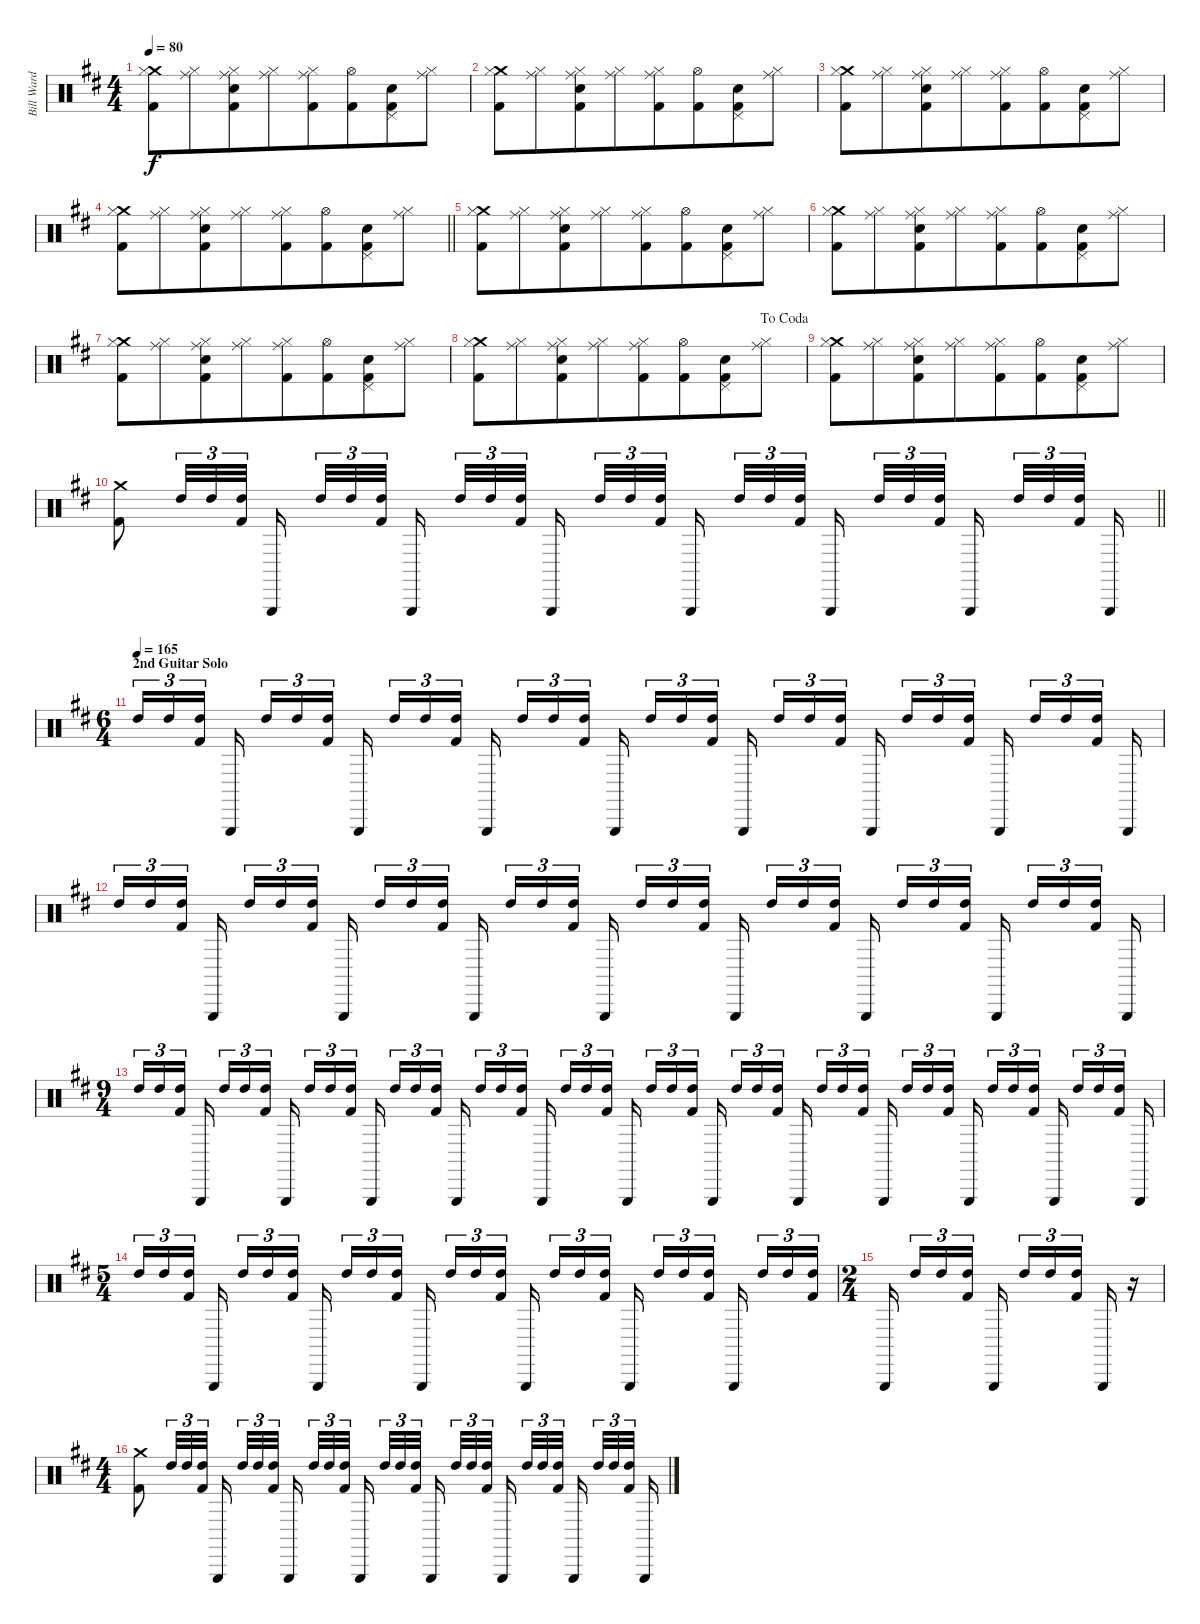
\track ("Bill Ward" "Bill Ward") {instrument percussion}
\staff {score}
\articulation defaults
\ts (4 4)
\tempo 80
\clef neutral
\ks d
("Crash medium (hit)" "Hi-Hat (closed)" "Kick (hit) 2").8{dy f} ("Ride (middle)" "Hi-Hat (closed)").8{beam merge} ("Ride (middle)" "Hi-Hat (closed)" "Snare (hit) 2" "Kick (hit) 2").8 ("Ride (middle)" "Hi-Hat (closed)").8{beam merge} ("Ride (middle)" "Hi-Hat (closed)" "Kick (hit) 2").8 ("Hi-Hat (open)" "Kick (hit) 2").8{beam merge} ("Pedal Hi-Hat (hit)" "Snare (hit) 2" "Kick (hit) 2").8 ("Ride (middle)" "Hi-Hat (closed)").8 |
("Crash medium (hit)" "Hi-Hat (closed)" "Kick (hit) 2").8 ("Ride (middle)" "Hi-Hat (closed)").8{beam merge} ("Ride (middle)" "Hi-Hat (closed)" "Snare (hit) 2" "Kick (hit) 2").8 ("Ride (middle)" "Hi-Hat (closed)").8{beam merge} ("Ride (middle)" "Hi-Hat (closed)" "Kick (hit) 2").8 ("Hi-Hat (open)" "Kick (hit) 2").8{beam merge} ("Pedal Hi-Hat (hit)" "Snare (hit) 2" "Kick (hit) 2").8 ("Ride (middle)" "Hi-Hat (closed)").8 |
("Crash medium (hit)" "Hi-Hat (closed)" "Kick (hit) 2").8 ("Ride (middle)" "Hi-Hat (closed)").8{beam merge} ("Ride (middle)" "Hi-Hat (closed)" "Snare (hit) 2" "Kick (hit) 2").8 ("Ride (middle)" "Hi-Hat (closed)").8{beam merge} ("Ride (middle)" "Hi-Hat (closed)" "Kick (hit) 2").8 ("Hi-Hat (open)" "Kick (hit) 2").8{beam merge} ("Pedal Hi-Hat (hit)" "Snare (hit) 2" "Kick (hit) 2").8 ("Ride (middle)" "Hi-Hat (closed)").8 |
\barLineRight lightlight
("Crash medium (hit)" "Hi-Hat (closed)" "Kick (hit) 2").8 ("Ride (middle)" "Hi-Hat (closed)").8{beam merge} ("Ride (middle)" "Hi-Hat (closed)" "Snare (hit) 2" "Kick (hit) 2").8 ("Ride (middle)" "Hi-Hat (closed)").8{beam merge} ("Ride (middle)" "Hi-Hat (closed)" "Kick (hit) 2").8 ("Hi-Hat (open)" "Kick (hit) 2").8{beam merge} ("Pedal Hi-Hat (hit)" "Snare (hit) 2" "Kick (hit) 2").8 ("Ride (middle)" "Hi-Hat (closed)").8 |
("Crash medium (hit)" "Hi-Hat (closed)" "Kick (hit) 2").8 ("Ride (middle)" "Hi-Hat (closed)").8{beam merge} ("Ride (middle)" "Hi-Hat (closed)" "Snare (hit) 2" "Kick (hit) 2").8 ("Ride (middle)" "Hi-Hat (closed)").8{beam merge} ("Ride (middle)" "Hi-Hat (closed)" "Kick (hit) 2").8 ("Hi-Hat (open)" "Kick (hit) 2").8{beam merge} ("Pedal Hi-Hat (hit)" "Snare (hit) 2" "Kick (hit) 2").8 ("Ride (middle)" "Hi-Hat (closed)").8 |
("Crash medium (hit)" "Hi-Hat (closed)" "Kick (hit) 2").8 ("Ride (middle)" "Hi-Hat (closed)").8{beam merge} ("Ride (middle)" "Hi-Hat (closed)" "Snare (hit) 2" "Kick (hit) 2").8 ("Ride (middle)" "Hi-Hat (closed)").8{beam merge} ("Ride (middle)" "Hi-Hat (closed)" "Kick (hit) 2").8 ("Hi-Hat (open)" "Kick (hit) 2").8{beam merge} ("Pedal Hi-Hat (hit)" "Snare (hit) 2" "Kick (hit) 2").8 ("Ride (middle)" "Hi-Hat (closed)").8 |
("Crash medium (hit)" "Hi-Hat (closed)" "Kick (hit) 2").8 ("Ride (middle)" "Hi-Hat (closed)").8{beam merge} ("Ride (middle)" "Hi-Hat (closed)" "Snare (hit) 2" "Kick (hit) 2").8 ("Ride (middle)" "Hi-Hat (closed)").8{beam merge} ("Ride (middle)" "Hi-Hat (closed)" "Kick (hit) 2").8 ("Hi-Hat (open)" "Kick (hit) 2").8{beam merge} ("Pedal Hi-Hat (hit)" "Snare (hit) 2" "Kick (hit) 2").8 ("Ride (middle)" "Hi-Hat (closed)").8 |
\jump dacoda
("Crash medium (hit)" "Hi-Hat (closed)" "Kick (hit) 2").8 ("Ride (middle)" "Hi-Hat (closed)").8{beam merge} ("Ride (middle)" "Hi-Hat (closed)" "Snare (hit) 2" "Kick (hit) 2").8 ("Ride (middle)" "Hi-Hat (closed)").8{beam merge} ("Ride (middle)" "Hi-Hat (closed)" "Kick (hit) 2").8 ("Hi-Hat (open)" "Kick (hit) 2").8{beam merge} ("Pedal Hi-Hat (hit)" "Snare (hit) 2" "Kick (hit) 2").8 ("Ride (middle)" "Hi-Hat (closed)").8 |
("Crash medium (hit)" "Hi-Hat (closed)" "Kick (hit) 2").8 ("Ride (middle)" "Hi-Hat (closed)").8{beam merge} ("Ride (middle)" "Hi-Hat (closed)" "Snare (hit) 2" "Kick (hit) 2").8 ("Ride (middle)" "Hi-Hat (closed)").8{beam merge} ("Ride (middle)" "Hi-Hat (closed)" "Kick (hit) 2").8 ("Hi-Hat (open)" "Kick (hit) 2").8{beam merge} ("Pedal Hi-Hat (hit)" "Snare (hit) 2" "Kick (hit) 2").8 ("Ride (middle)" "Hi-Hat (closed)").8 |
\barLineRight lightlight
("Crash medium (hit)" "Kick (hit) 2").8 "High Tom (hit)".32{tu (3 2)} "High Tom (hit)".32{tu (3 2)} ("High Tom (hit)" "Kick (hit) 2").32{tu (3 2) beam splitsecondary} "Triangle (hit)".16 "High Tom (hit)".32{tu (3 2)} "High Tom (hit)".32{tu (3 2)} ("High Tom (hit)" "Kick (hit) 2").32{tu (3 2) beam splitsecondary} "Triangle (hit)".16{beam splitsecondary} "High Tom (hit)".32{tu (3 2)} "High Tom (hit)".32{tu (3 2)} ("High Tom (hit)" "Kick (hit) 2").32{tu (3 2) beam splitsecondary} "Triangle (hit)".16 "High Tom (hit)".32{tu (3 2)} "High Tom (hit)".32{tu (3 2)} ("High Tom (hit)" "Kick (hit) 2").32{tu (3 2) beam splitsecondary} "Triangle (hit)".16{beam splitsecondary} "High Tom (hit)".32{tu (3 2)} "High Tom (hit)".32{tu (3 2)} ("High Tom (hit)" "Kick (hit) 2").32{tu (3 2) beam splitsecondary} "Triangle (hit)".16 "High Tom (hit)".32{tu (3 2)} "High Tom (hit)".32{tu (3 2)} ("High Tom (hit)" "Kick (hit) 2").32{tu (3 2) beam splitsecondary} "Triangle (hit)".16{beam splitsecondary} "High Tom (hit)".32{tu (3 2)} "High Tom (hit)".32{tu (3 2)} ("High Tom (hit)" "Kick (hit) 2").32{tu (3 2) beam splitsecondary} "Triangle (hit)".16 |
\ts (6 4)
\section ("" "2nd Guitar Solo")
\tempo (165)
"High Tom (hit)".16{tu (3 2)} "High Tom (hit)".16{tu (3 2)} ("High Tom (hit)" "Kick (hit) 2").16{tu (3 2) beam splitsecondary} "Triangle (hit)".16{beam splitsecondary} "High Tom (hit)".16{tu (3 2)} "High Tom (hit)".16{tu (3 2)} ("High Tom (hit)" "Kick (hit) 2").16{tu (3 2) beam splitsecondary} "Triangle (hit)".16{beam splitsecondary} "High Tom (hit)".16{tu (3 2)} "High Tom (hit)".16{tu (3 2)} ("High Tom (hit)" "Kick (hit) 2").16{tu (3 2) beam splitsecondary} "Triangle (hit)".16{beam splitsecondary} "High Tom (hit)".16{tu (3 2)} "High Tom (hit)".16{tu (3 2)} ("High Tom (hit)" "Kick (hit) 2").16{tu (3 2) beam splitsecondary} "Triangle (hit)".16 "High Tom (hit)".16{tu (3 2)} "High Tom (hit)".16{tu (3 2)} ("High Tom (hit)" "Kick (hit) 2").16{tu (3 2) beam splitsecondary} "Triangle (hit)".16{beam splitsecondary} "High Tom (hit)".16{tu (3 2)} "High Tom (hit)".16{tu (3 2)} ("High Tom (hit)" "Kick (hit) 2").16{tu (3 2) beam splitsecondary} "Triangle (hit)".16{beam splitsecondary} "High Tom (hit)".16{tu (3 2)} "High Tom (hit)".16{tu (3 2)} ("High Tom (hit)" "Kick (hit) 2").16{tu (3 2) beam splitsecondary} "Triangle (hit)".16{beam splitsecondary} "High Tom (hit)".16{tu (3 2)} "High Tom (hit)".16{tu (3 2)} ("High Tom (hit)" "Kick (hit) 2").16{tu (3 2) beam splitsecondary} "Triangle (hit)".16 |
"High Tom (hit)".16{tu (3 2)} "High Tom (hit)".16{tu (3 2)} ("High Tom (hit)" "Kick (hit) 2").16{tu (3 2) beam splitsecondary} "Triangle (hit)".16{beam splitsecondary} "High Tom (hit)".16{tu (3 2)} "High Tom (hit)".16{tu (3 2)} ("High Tom (hit)" "Kick (hit) 2").16{tu (3 2) beam splitsecondary} "Triangle (hit)".16{beam splitsecondary} "High Tom (hit)".16{tu (3 2)} "High Tom (hit)".16{tu (3 2)} ("High Tom (hit)" "Kick (hit) 2").16{tu (3 2) beam splitsecondary} "Triangle (hit)".16{beam splitsecondary} "High Tom (hit)".16{tu (3 2)} "High Tom (hit)".16{tu (3 2)} ("High Tom (hit)" "Kick (hit) 2").16{tu (3 2) beam splitsecondary} "Triangle (hit)".16 "High Tom (hit)".16{tu (3 2)} "High Tom (hit)".16{tu (3 2)} ("High Tom (hit)" "Kick (hit) 2").16{tu (3 2) beam splitsecondary} "Triangle (hit)".16{beam splitsecondary} "High Tom (hit)".16{tu (3 2)} "High Tom (hit)".16{tu (3 2)} ("High Tom (hit)" "Kick (hit) 2").16{tu (3 2) beam splitsecondary} "Triangle (hit)".16{beam splitsecondary} "High Tom (hit)".16{tu (3 2)} "High Tom (hit)".16{tu (3 2)} ("High Tom (hit)" "Kick (hit) 2").16{tu (3 2) beam splitsecondary} "Triangle (hit)".16{beam splitsecondary} "High Tom (hit)".16{tu (3 2)} "High Tom (hit)".16{tu (3 2)} ("High Tom (hit)" "Kick (hit) 2").16{tu (3 2) beam splitsecondary} "Triangle (hit)".16 |
\ts (9 4)
"High Tom (hit)".16{tu (3 2)} "High Tom (hit)".16{tu (3 2)} ("High Tom (hit)" "Kick (hit) 2").16{tu (3 2) beam splitsecondary} "Triangle (hit)".16{beam splitsecondary} "High Tom (hit)".16{tu (3 2)} "High Tom (hit)".16{tu (3 2)} ("High Tom (hit)" "Kick (hit) 2").16{tu (3 2) beam splitsecondary} "Triangle (hit)".16{beam splitsecondary} "High Tom (hit)".16{tu (3 2)} "High Tom (hit)".16{tu (3 2)} ("High Tom (hit)" "Kick (hit) 2").16{tu (3 2) beam splitsecondary} "Triangle (hit)".16{beam splitsecondary} "High Tom (hit)".16{tu (3 2)} "High Tom (hit)".16{tu (3 2)} ("High Tom (hit)" "Kick (hit) 2").16{tu (3 2) beam splitsecondary} "Triangle (hit)".16 "High Tom (hit)".16{tu (3 2)} "High Tom (hit)".16{tu (3 2)} ("High Tom (hit)" "Kick (hit) 2").16{tu (3 2) beam splitsecondary} "Triangle (hit)".16{beam splitsecondary} "High Tom (hit)".16{tu (3 2)} "High Tom (hit)".16{tu (3 2)} ("High Tom (hit)" "Kick (hit) 2").16{tu (3 2) beam splitsecondary} "Triangle (hit)".16{beam splitsecondary} "High Tom (hit)".16{tu (3 2)} "High Tom (hit)".16{tu (3 2)} ("High Tom (hit)" "Kick (hit) 2").16{tu (3 2) beam splitsecondary} "Triangle (hit)".16{beam splitsecondary} "High Tom (hit)".16{tu (3 2)} "High Tom (hit)".16{tu (3 2)} ("High Tom (hit)" "Kick (hit) 2").16{tu (3 2) beam splitsecondary} "Triangle (hit)".16 "High Tom (hit)".16{tu (3 2)} "High Tom (hit)".16{tu (3 2)} ("High Tom (hit)" "Kick (hit) 2").16{tu (3 2) beam splitsecondary} "Triangle (hit)".16{beam splitsecondary} "High Tom (hit)".16{tu (3 2)} "High Tom (hit)".16{tu (3 2)} ("High Tom (hit)" "Kick (hit) 2").16{tu (3 2) beam splitsecondary} "Triangle (hit)".16{beam splitsecondary} "High Tom (hit)".16{tu (3 2)} "High Tom (hit)".16{tu (3 2)} ("High Tom (hit)" "Kick (hit) 2").16{tu (3 2) beam splitsecondary} "Triangle (hit)".16{beam splitsecondary} "High Tom (hit)".16{tu (3 2)} "High Tom (hit)".16{tu (3 2)} ("High Tom (hit)" "Kick (hit) 2").16{tu (3 2) beam splitsecondary} "Triangle (hit)".16 |
\ts (5 4)
"High Tom (hit)".16{tu (3 2)} "High Tom (hit)".16{tu (3 2)} ("High Tom (hit)" "Kick (hit) 2").16{tu (3 2) beam splitsecondary} "Triangle (hit)".16{beam splitsecondary} "High Tom (hit)".16{tu (3 2)} "High Tom (hit)".16{tu (3 2)} ("High Tom (hit)" "Kick (hit) 2").16{tu (3 2) beam splitsecondary} "Triangle (hit)".16{beam splitsecondary} "High Tom (hit)".16{tu (3 2)} "High Tom (hit)".16{tu (3 2)} ("High Tom (hit)" "Kick (hit) 2").16{tu (3 2)} "Triangle (hit)".16{beam splitsecondary} "High Tom (hit)".16{tu (3 2)} "High Tom (hit)".16{tu (3 2)} ("High Tom (hit)" "Kick (hit) 2").16{tu (3 2) beam splitsecondary} "Triangle (hit)".16 "High Tom (hit)".16{tu (3 2)} "High Tom (hit)".16{tu (3 2)} ("High Tom (hit)" "Kick (hit) 2").16{tu (3 2) beam splitsecondary} "Triangle (hit)".16{beam splitsecondary} "High Tom (hit)".16{tu (3 2)} "High Tom (hit)".16{tu (3 2)} ("High Tom (hit)" "Kick (hit) 2").16{tu (3 2) beam splitsecondary} "Triangle (hit)".16{beam splitsecondary} "High Tom (hit)".16{tu (3 2)} "High Tom (hit)".16{tu (3 2)} ("High Tom (hit)" "Kick (hit) 2").16{tu (3 2)} |
\ts (2 4)
"Triangle (hit)".16{beam splitsecondary} "High Tom (hit)".16{tu (3 2)} "High Tom (hit)".16{tu (3 2)} ("High Tom (hit)" "Kick (hit) 2").16{tu (3 2) beam splitsecondary} "Triangle (hit)".16 "High Tom (hit)".16{tu (3 2)} "High Tom (hit)".16{tu (3 2)} ("High Tom (hit)" "Kick (hit) 2").16{tu (3 2) beam splitsecondary} "Triangle (hit)".16 r.16 |
\ts (4 4)
("Crash medium (hit)" "Kick (hit) 2").8 "High Tom (hit)".32{tu (3 2)} "High Tom (hit)".32{tu (3 2)} ("High Tom (hit)" "Kick (hit) 2").32{tu (3 2) beam splitsecondary} "Triangle (hit)".16 "High Tom (hit)".32{tu (3 2)} "High Tom (hit)".32{tu (3 2)} ("High Tom (hit)" "Kick (hit) 2").32{tu (3 2) beam splitsecondary} "Triangle (hit)".16{beam splitsecondary} "High Tom (hit)".32{tu (3 2)} "High Tom (hit)".32{tu (3 2)} ("High Tom (hit)" "Kick (hit) 2").32{tu (3 2) beam splitsecondary} "Triangle (hit)".16 "High Tom (hit)".32{tu (3 2)} "High Tom (hit)".32{tu (3 2)} ("High Tom (hit)" "Kick (hit) 2").32{tu (3 2) beam splitsecondary} "Triangle (hit)".16{beam splitsecondary} "High Tom (hit)".32{tu (3 2)} "High Tom (hit)".32{tu (3 2)} ("High Tom (hit)" "Kick (hit) 2").32{tu (3 2) beam splitsecondary} "Triangle (hit)".16 "High Tom (hit)".32{tu (3 2)} "High Tom (hit)".32{tu (3 2)} ("High Tom (hit)" "Kick (hit) 2").32{tu (3 2) beam splitsecondary} "Triangle (hit)".16{beam splitsecondary} "High Tom (hit)".32{tu (3 2)} "High Tom (hit)".32{tu (3 2)} ("High Tom (hit)" "Kick (hit) 2").32{tu (3 2) beam splitsecondary} "Triangle (hit)".16
